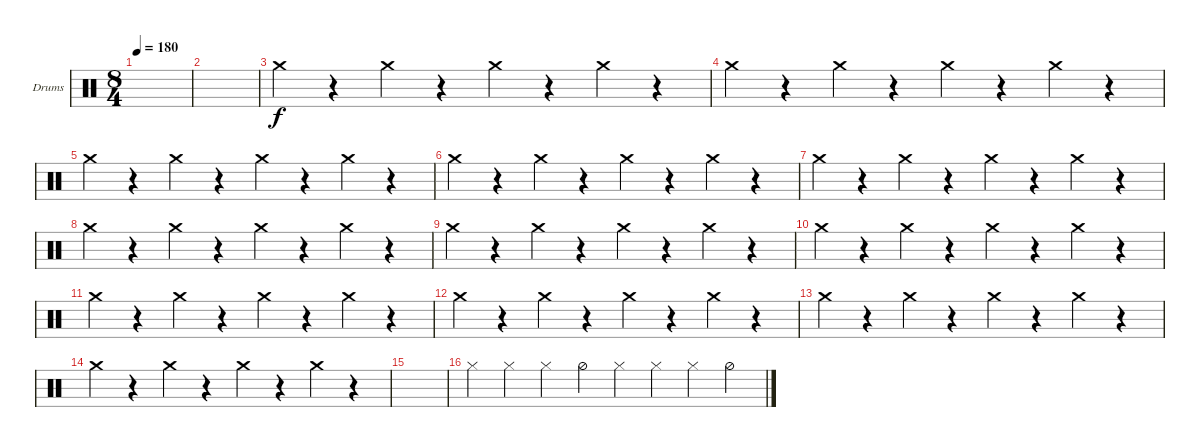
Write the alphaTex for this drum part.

\defaultSystemsLayout 4
\bracketExtendMode groupsimilarinstruments
\firstSystemTrackNameOrientation horizontal
\otherSystemsTrackNameOrientation horizontal
\track ("Drumkit" "Drums") {instrument percussion}
\staff {score}
\articulation defaults
\ts (8 4)
\tempo 180
\clef neutral
\ks c
|
|
"Crash medium (hit)".4 r.4 "Crash medium (hit)".4 r.4 "Crash medium (hit)".4 r.4 "Crash medium (hit)".4 r.4 |
"Crash medium (hit)".4 r.4 "Crash medium (hit)".4 r.4 "Crash medium (hit)".4 r.4 "Crash medium (hit)".4 r.4 |
"Crash medium (hit)".4 r.4 "Crash medium (hit)".4 r.4 "Crash medium (hit)".4 r.4 "Crash medium (hit)".4 r.4 |
"Crash medium (hit)".4 r.4 "Crash medium (hit)".4 r.4 "Crash medium (hit)".4 r.4 "Crash medium (hit)".4 r.4 |
"Crash medium (hit)".4 r.4 "Crash medium (hit)".4 r.4 "Crash medium (hit)".4 r.4 "Crash medium (hit)".4 r.4 |
"Crash medium (hit)".4 r.4 "Crash medium (hit)".4 r.4 "Crash medium (hit)".4 r.4 "Crash medium (hit)".4 r.4 |
"Crash medium (hit)".4 r.4 "Crash medium (hit)".4 r.4 "Crash medium (hit)".4 r.4 "Crash medium (hit)".4 r.4 |
"Crash medium (hit)".4 r.4 "Crash medium (hit)".4 r.4 "Crash medium (hit)".4 r.4 "Crash medium (hit)".4 r.4 |
"Crash medium (hit)".4 r.4 "Crash medium (hit)".4 r.4 "Crash medium (hit)".4 r.4 "Crash medium (hit)".4 r.4 |
"Crash medium (hit)".4 r.4 "Crash medium (hit)".4 r.4 "Crash medium (hit)".4 r.4 "Crash medium (hit)".4 r.4 |
"Crash medium (hit)".4 r.4 "Crash medium (hit)".4 r.4 "Crash medium (hit)".4 r.4 "Crash medium (hit)".4 r.4 |
"Crash medium (hit)".4 r.4 "Crash medium (hit)".4 r.4 "Crash medium (hit)".4 r.4 "Crash medium (hit)".4 r.4 |
|
"Hi-Hat (closed)".4 "Hi-Hat (closed)".4 "Hi-Hat (closed)".4 "Hi-Hat (half)".4 "Hi-Hat (closed)".4 "Hi-Hat (closed)".4 "Hi-Hat (closed)".4 "Hi-Hat (half)".4
